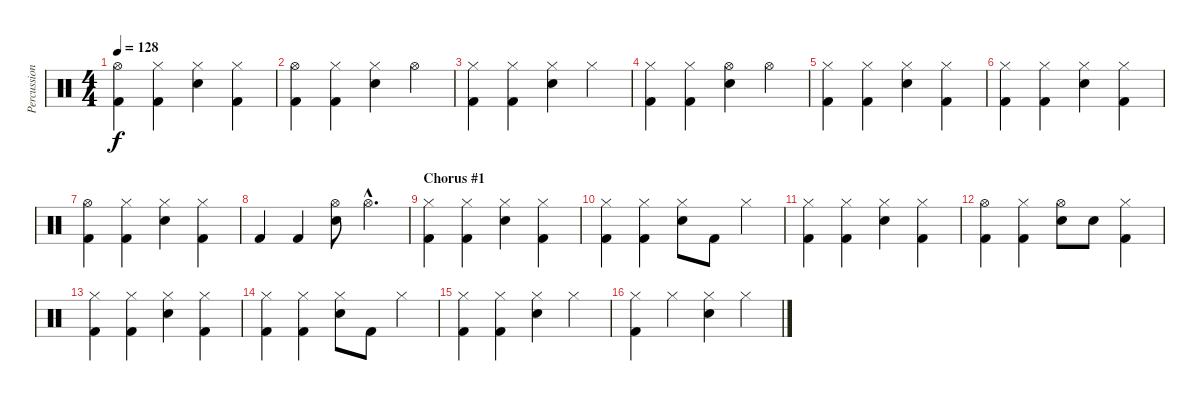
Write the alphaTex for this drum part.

\track ("Percussion" "Percussion") {instrument percussion}
\staff {score}
\articulation defaults
\ts (4 4)
\tempo 128
\clef neutral
\ks c
("Hi-Hat (open)" "Kick (hit) 2").4{dy f} ("Hi-Hat (closed)" "Kick (hit) 2").4 ("Hi-Hat (closed)" "Electric Snare (hit)").4 ("Hi-Hat (closed)" "Kick (hit) 2").4 |
("Hi-Hat (open)" "Kick (hit) 2").4 ("Hi-Hat (closed)" "Kick (hit) 2").4 ("Hi-Hat (closed)" "Electric Snare (hit)").4 "Hi-Hat (open)".4 |
("Hi-Hat (closed)" "Kick (hit) 2").4 ("Hi-Hat (closed)" "Kick (hit) 2").4 ("Hi-Hat (closed)" "Electric Snare (hit)").4 "Hi-Hat (closed)".4 |
("Hi-Hat (closed)" "Kick (hit) 2").4 ("Hi-Hat (closed)" "Kick (hit) 2").4 ("Hi-Hat (open)" "Electric Snare (hit)").4 "Hi-Hat (open)".4 |
("Hi-Hat (closed)" "Kick (hit) 2").4 ("Hi-Hat (closed)" "Kick (hit) 2").4 ("Hi-Hat (closed)" "Electric Snare (hit)").4 ("Hi-Hat (closed)" "Kick (hit) 2").4 |
("Hi-Hat (closed)" "Kick (hit) 2").4 ("Hi-Hat (closed)" "Kick (hit) 2").4 ("Hi-Hat (closed)" "Electric Snare (hit)").4 ("Hi-Hat (closed)" "Kick (hit) 2").4 |
("Hi-Hat (open)" "Kick (hit) 2").4 ("Hi-Hat (closed)" "Kick (hit) 2").4 ("Hi-Hat (closed)" "Electric Snare (hit)").4 ("Hi-Hat (closed)" "Kick (hit) 2").4 |
"Kick (hit) 2".4 "Kick (hit) 2".4 ("Hi-Hat (open)" "Electric Snare (hit)").8 "Hi-Hat (open)"{hac}.4{d} |
\section ("" "Chorus #1")
("Hi-Hat (closed)" "Kick (hit) 2").4 ("Hi-Hat (closed)" "Kick (hit) 2").4 ("Hi-Hat (closed)" "Electric Snare (hit)").4 ("Hi-Hat (closed)" "Kick (hit) 2").4 |
("Hi-Hat (closed)" "Kick (hit) 2").4 ("Hi-Hat (closed)" "Kick (hit) 2").4 ("Hi-Hat (closed)" "Electric Snare (hit)").8 "Kick (hit) 2".8 "Hi-Hat (closed)".4 |
("Hi-Hat (closed)" "Kick (hit) 2").4 ("Hi-Hat (closed)" "Kick (hit) 2").4 ("Hi-Hat (closed)" "Electric Snare (hit)").4 ("Hi-Hat (closed)" "Kick (hit) 2").4 |
("Hi-Hat (open)" "Kick (hit) 2").4 ("Hi-Hat (closed)" "Kick (hit) 2").4 ("Hi-Hat (open)" "Electric Snare (hit)").8 "Electric Snare (hit)".8 ("Hi-Hat (closed)" "Kick (hit) 2").4 |
("Hi-Hat (closed)" "Kick (hit) 2").4 ("Hi-Hat (closed)" "Kick (hit) 2").4 ("Hi-Hat (closed)" "Electric Snare (hit)").4 ("Hi-Hat (closed)" "Kick (hit) 2").4 |
("Hi-Hat (closed)" "Kick (hit) 2").4 ("Hi-Hat (closed)" "Kick (hit) 2").4 ("Hi-Hat (closed)" "Electric Snare (hit)").8 "Kick (hit) 2".8 "Hi-Hat (closed)".4 |
("Hi-Hat (closed)" "Kick (hit) 2").4 ("Hi-Hat (closed)" "Kick (hit) 2").4 ("Hi-Hat (closed)" "Electric Snare (hit)").4 "Hi-Hat (closed)".4 |
("Hi-Hat (closed)" "Kick (hit) 2").4 "Hi-Hat (closed)".4 ("Hi-Hat (closed)" "Electric Snare (hit)").4 "Hi-Hat (closed)".4
